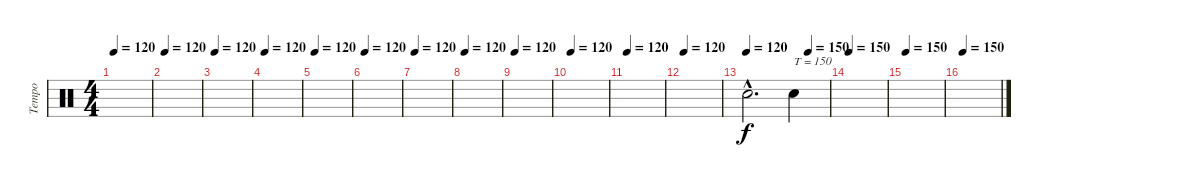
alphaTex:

\track ("Tempo" "Tempo") {instrument percussion}
\staff {score}
\articulation defaults
\ts (4 4)
\tempo 120
\clef neutral
\ks c
|
\tempo 120
|
\tempo 120
|
\tempo 120
|
\tempo 120
|
\tempo 120
|
\tempo 120
|
\tempo 120
|
\tempo 120
|
\tempo 120
|
\tempo 120
|
\tempo 120
|
\tempo 120
\tempo (150 0.75)
"Snare (hit)"{hac x}.2{d} "Snare (hit)"{x}.4{txt "T = 150"} |
\tempo 150
|
\tempo 150
|
\tempo 150
